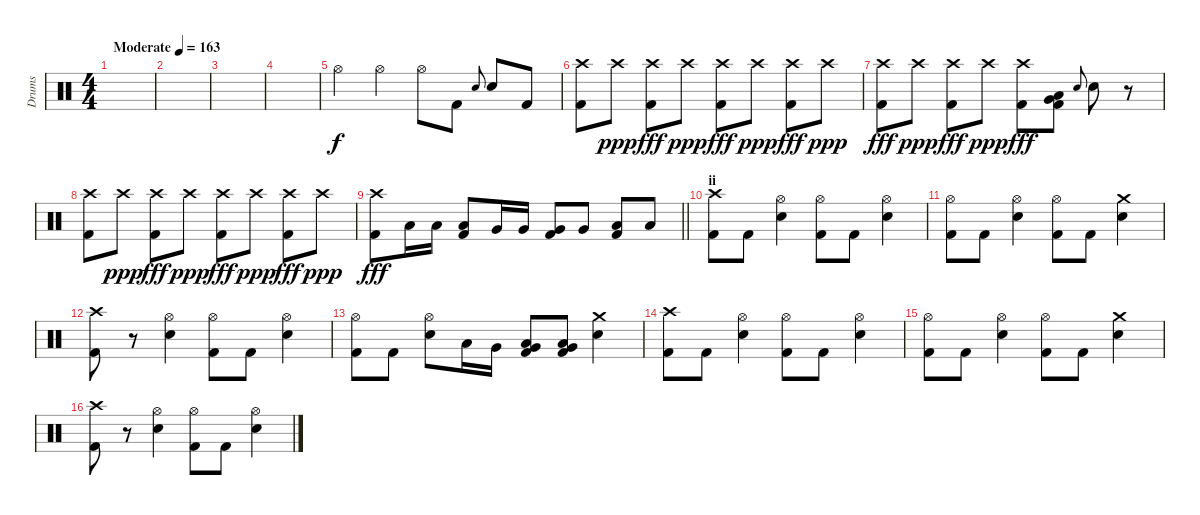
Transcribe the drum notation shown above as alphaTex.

\track ("Drums" "Drums") {instrument percussion}
\staff {score}
\articulation defaults
\ts (4 4)
\tempo (163 "Moderate")
\clef neutral
\ks c
|
|
|
|
"Hi-Hat (open)".4 "Hi-Hat (open)".4 "Hi-Hat (open)".8 "Kick (hit) 2".8 "Electric Snare (hit)".8{gr onbeat} "Electric Snare (hit)".8 "Kick (hit) 2".8 |
("Crash high (hit)" "Kick (hit) 2").8 "Crash high (hit)".8{dy ppp} ("Crash high (hit)" "Kick (hit) 2").8{dy fff} "Crash high (hit)".8{dy ppp} ("Crash high (hit)" "Kick (hit) 2").8{dy fff} "Crash high (hit)".8{dy ppp} ("Crash high (hit)" "Kick (hit) 2").8{dy fff} "Crash high (hit)".8{dy ppp} |
("Crash high (hit)" "Kick (hit) 2").8{dy fff} "Crash high (hit)".8{dy ppp} ("Crash high (hit)" "Kick (hit) 2").8{dy fff} "Crash high (hit)".8{dy ppp} ("Crash high (hit)" "Kick (hit) 2").8{dy fff} ("Low Tom (hit)" "Very Low Tom (hit)" "Kick (hit) 2").8 "Electric Snare (hit)".8{gr onbeat} "Electric Snare (hit)".8 r.8 |
("Crash high (hit)" "Kick (hit) 2").8 "Crash high (hit)".8{dy ppp} ("Crash high (hit)" "Kick (hit) 2").8{dy fff} "Crash high (hit)".8{dy ppp} ("Crash high (hit)" "Kick (hit) 2").8{dy fff} "Crash high (hit)".8{dy ppp} ("Crash high (hit)" "Kick (hit) 2").8{dy fff} "Crash high (hit)".8{dy ppp} |
\barLineRight lightlight
("Crash high (hit)" "Kick (hit) 2").8{dy fff} "Low Tom (hit)".16 "Low Tom (hit)".16 ("Low Tom (hit)" "Kick (hit) 2").8 "Very Low Tom (hit)".16 "Very Low Tom (hit)".16 ("Very Low Tom (hit)" "Kick (hit) 2").8 "Very Low Tom (hit)".8 ("Low Floor Tom (hit)" "Kick (hit) 2").8 "Low Floor Tom (hit)".8 |
\section ("" "ii")
("Crash high (hit)" "Kick (hit) 2").8 "Kick (hit) 2".8 ("Hi-Hat (open)" "Electric Snare (hit)").4 ("Hi-Hat (open)" "Kick (hit) 2").8 "Kick (hit) 2".8 ("Hi-Hat (open)" "Electric Snare (hit)").4 |
("Hi-Hat (open)" "Kick (hit) 2").8 "Kick (hit) 2".8 ("Hi-Hat (open)" "Electric Snare (hit)").4 ("Hi-Hat (open)" "Kick (hit) 2").8 "Kick (hit) 2".8 ("Crash medium (hit)" "Electric Snare (hit)").4 |
("Crash high (hit)" "Kick (hit) 2").8 r.8 ("Hi-Hat (open)" "Electric Snare (hit)").4 ("Hi-Hat (open)" "Kick (hit) 2").8 "Kick (hit) 2".8 ("Hi-Hat (open)" "Electric Snare (hit)").4 |
("Hi-Hat (open)" "Kick (hit) 2").8 "Kick (hit) 2".8 ("Hi-Hat (open)" "Electric Snare (hit)").8 "Low Tom (hit)".16 "Very Low Tom (hit)".16 ("Very Low Tom (hit)" "Low Floor Tom (hit)" "Kick (hit) 2").8 ("Very Low Tom (hit)" "Low Floor Tom (hit)" "Kick (hit) 2").8 ("Crash medium (hit)" "Electric Snare (hit)").4 |
("Crash high (hit)" "Kick (hit) 2").8 "Kick (hit) 2".8 ("Hi-Hat (open)" "Electric Snare (hit)").4 ("Hi-Hat (open)" "Kick (hit) 2").8 "Kick (hit) 2".8 ("Hi-Hat (open)" "Electric Snare (hit)").4 |
("Hi-Hat (open)" "Kick (hit) 2").8 "Kick (hit) 2".8 ("Hi-Hat (open)" "Electric Snare (hit)").4 ("Hi-Hat (open)" "Kick (hit) 2").8 "Kick (hit) 2".8 ("Crash medium (hit)" "Electric Snare (hit)").4 |
("Crash high (hit)" "Kick (hit) 2").8 r.8 ("Hi-Hat (open)" "Electric Snare (hit)").4 ("Hi-Hat (open)" "Kick (hit) 2").8 "Kick (hit) 2".8 ("Hi-Hat (open)" "Electric Snare (hit)").4
